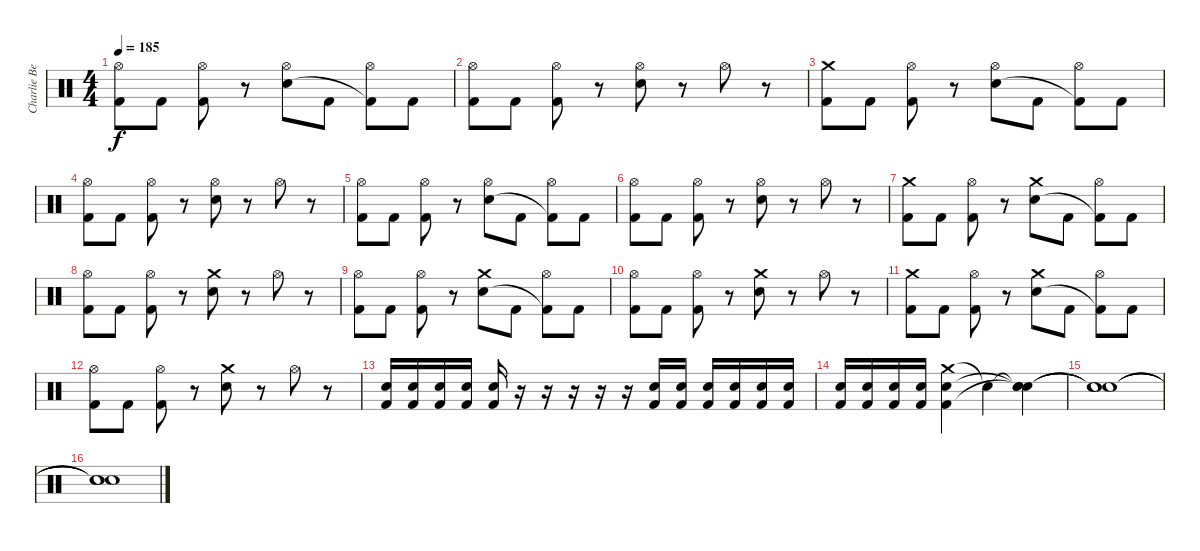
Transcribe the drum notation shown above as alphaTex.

\track ("Charlie Benante" "Charlie Be") {instrument percussion}
\staff {score}
\articulation defaults
\ts (4 4)
\tempo 185
\clef neutral
\ks c
("Hi-Hat (open)" "Kick (hit) 2").8{dy f} "Kick (hit) 2".8 ("Hi-Hat (open)" "Kick (hit) 2").8 r.8 ("Hi-Hat (open)" "Snare (hit) 2").8 "Kick (hit) 2".8 ("Hi-Hat (open)" "Kick (hit) 2"{t}).8 "Kick (hit) 2".8 |
("Hi-Hat (open)" "Kick (hit) 2").8 "Kick (hit) 2".8 ("Hi-Hat (open)" "Kick (hit) 2").8 r.8 ("Hi-Hat (open)" "Snare (hit) 2").8 r.8 "Hi-Hat (open)".8 r.8 |
("Crash medium (hit)" "Kick (hit) 2").8 "Kick (hit) 2".8 ("Hi-Hat (open)" "Kick (hit) 2").8 r.8 ("Hi-Hat (open)" "Snare (hit) 2").8 "Kick (hit) 2".8 ("Hi-Hat (open)" "Kick (hit) 2"{t}).8 "Kick (hit) 2".8 |
("Hi-Hat (open)" "Kick (hit) 2").8 "Kick (hit) 2".8 ("Hi-Hat (open)" "Kick (hit) 2").8 r.8 ("Hi-Hat (open)" "Snare (hit) 2").8 r.8 "Hi-Hat (open)".8 r.8 |
("Hi-Hat (open)" "Kick (hit) 2").8 "Kick (hit) 2".8 ("Hi-Hat (open)" "Kick (hit) 2").8 r.8 ("Hi-Hat (open)" "Snare (hit) 2").8 "Kick (hit) 2".8 ("Hi-Hat (open)" "Kick (hit) 2"{t}).8 "Kick (hit) 2".8 |
("Hi-Hat (open)" "Kick (hit) 2").8 "Kick (hit) 2".8 ("Hi-Hat (open)" "Kick (hit) 2").8 r.8 ("Hi-Hat (open)" "Snare (hit) 2").8 r.8 "Hi-Hat (open)".8 r.8 |
("Crash medium (hit)" "Kick (hit) 2").8 "Kick (hit) 2".8 ("Hi-Hat (open)" "Kick (hit) 2").8 r.8 ("Crash medium (hit)" "Snare (hit) 2").8 "Kick (hit) 2".8 ("Hi-Hat (open)" "Kick (hit) 2"{t}).8 "Kick (hit) 2".8 |
("Hi-Hat (open)" "Kick (hit) 2").8 "Kick (hit) 2".8 ("Hi-Hat (open)" "Kick (hit) 2").8 r.8 ("Crash medium (hit)" "Snare (hit) 2").8 r.8 "Hi-Hat (open)".8 r.8 |
("Hi-Hat (open)" "Kick (hit) 2").8 "Kick (hit) 2".8 ("Hi-Hat (open)" "Kick (hit) 2").8 r.8 ("Crash medium (hit)" "Snare (hit) 2").8 "Kick (hit) 2".8 ("Hi-Hat (open)" "Kick (hit) 2"{t}).8 "Kick (hit) 2".8 |
("Hi-Hat (open)" "Kick (hit) 2").8 "Kick (hit) 2".8 ("Hi-Hat (open)" "Kick (hit) 2").8 r.8 ("Crash medium (hit)" "Snare (hit) 2").8 r.8 "Hi-Hat (open)".8 r.8 |
("Crash medium (hit)" "Kick (hit) 2").8 "Kick (hit) 2".8 ("Hi-Hat (open)" "Kick (hit) 2").8 r.8 ("Crash medium (hit)" "Snare (hit) 2").8 "Kick (hit) 2".8 ("Hi-Hat (open)" "Kick (hit) 2"{t}).8 "Kick (hit) 2".8 |
("Hi-Hat (open)" "Kick (hit) 2").8 "Kick (hit) 2".8 ("Hi-Hat (open)" "Kick (hit) 2").8 r.8 ("Crash medium (hit)" "Snare (hit) 2").8 r.8 "Hi-Hat (open)".8 r.8 |
("Snare (hit) 2" "Kick (hit) 2").16 ("Snare (hit) 2" "Kick (hit) 2").16 ("Snare (hit) 2" "Kick (hit) 2").16 ("Snare (hit) 2" "Kick (hit) 2").16 ("Snare (hit) 2" "Kick (hit) 2").16 r.16 r.16 r.16 r.16 r.16 ("Snare (hit) 2" "Kick (hit) 2").16 ("Snare (hit) 2" "Kick (hit) 2").16 ("Snare (hit) 2" "Kick (hit) 2").16 ("Snare (hit) 2" "Kick (hit) 2").16 ("Snare (hit) 2" "Kick (hit) 2").16 ("Snare (hit) 2" "Kick (hit) 2").16 |
("Snare (hit) 2" "Kick (hit) 2").16 ("Snare (hit) 2" "Kick (hit) 2").16 ("Snare (hit) 2" "Kick (hit) 2").16 ("Snare (hit) 2" "Kick (hit) 2").16 ("Crash medium (hit)" "Snare (hit) 2" "Kick (hit) 2").4 "Snare (hit)"{t}.4 ("Snare (hit)"{t} "Snare (hit)"{t} "Snare (hit)"{t}).4 |
("Snare (hit)"{t} "Snare (hit)"{t} "Snare (hit)"{t}).1 |
("Snare (hit)"{t} "Snare (hit) 2"{t} "Snare (hit)"{t}).1
